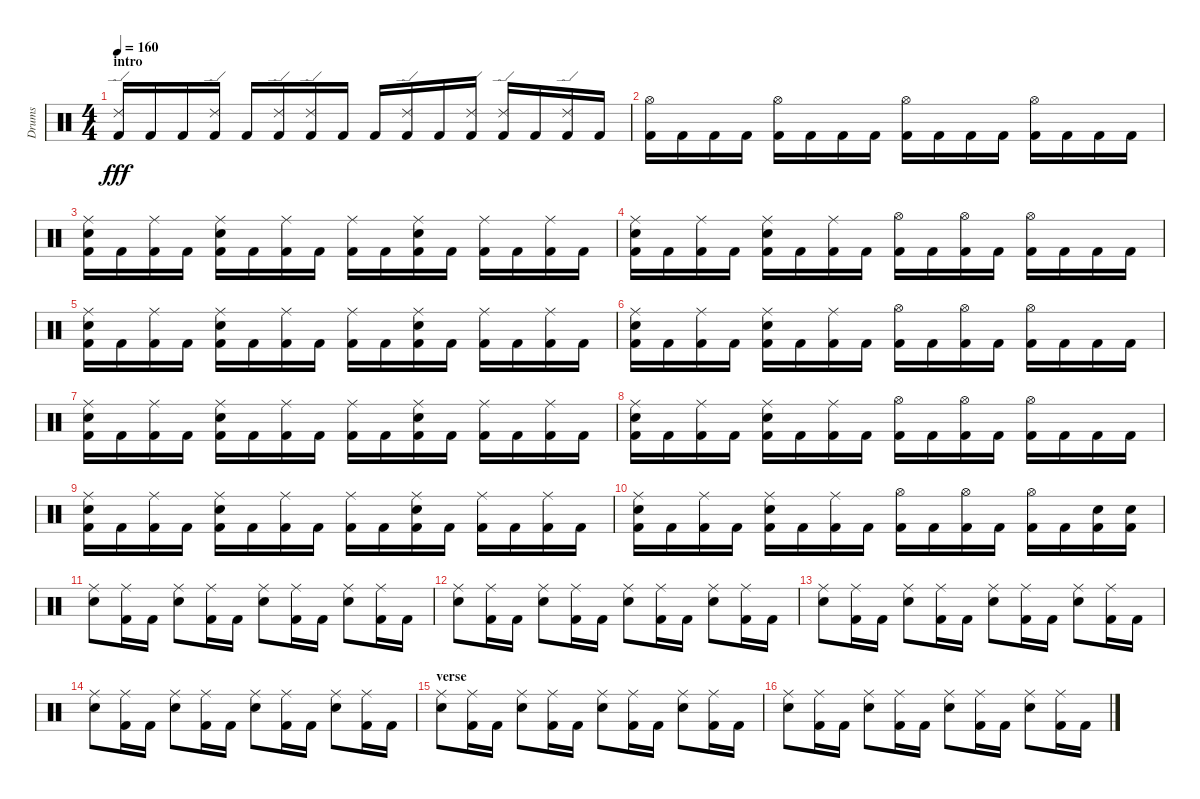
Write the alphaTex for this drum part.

\track ("Drums" "Drums") {instrument percussion}
\staff {score}
\articulation defaults
\ts (4 4)
\section ("" "intro")
\tempo 160
\clef neutral
\ks c
("Ride (edge) 2" "Kick (hit) 2").16{dy fff} "Kick (hit) 2".16 "Kick (hit) 2".16 ("Ride (edge) 2" "Kick (hit) 2").16 "Kick (hit) 2".16 ("Ride (edge) 2" "Kick (hit) 2").16 ("Ride (edge) 2" "Kick (hit) 2").16 "Kick (hit) 2".16 "Kick (hit) 2".16 ("Ride (edge) 2" "Kick (hit) 2").16 "Kick (hit) 2".16 ("Ride (edge) 2" "Kick (hit) 2").16 ("Ride (edge) 2" "Kick (hit) 2").16 "Kick (hit) 2".16 ("Ride (edge) 2" "Kick (hit) 2").16 "Kick (hit) 2".16 |
("Hi-Hat (open)" "Kick (hit) 2").16 "Kick (hit) 2".16 "Kick (hit) 2".16 "Kick (hit) 2".16 ("Hi-Hat (open)" "Kick (hit) 2").16 "Kick (hit) 2".16 "Kick (hit) 2".16 "Kick (hit) 2".16 ("Hi-Hat (open)" "Kick (hit) 2").16 "Kick (hit) 2".16 "Kick (hit) 2".16 "Kick (hit) 2".16 ("Hi-Hat (open)" "Kick (hit) 2").16 "Kick (hit) 2".16 "Kick (hit) 2".16 "Kick (hit) 2".16 |
("Kick (hit) 2" "Electric Snare (hit)" "Ride (middle)").16 "Kick (hit) 2".16 ("Kick (hit) 2" "Ride (middle)").16 "Kick (hit) 2".16 ("Kick (hit) 2" "Electric Snare (hit)" "Ride (middle)").16 "Kick (hit) 2".16 ("Kick (hit) 2" "Ride (middle)").16 "Kick (hit) 2".16 ("Kick (hit) 2" "Ride (middle)").16 "Kick (hit) 2".16 ("Kick (hit) 2" "Electric Snare (hit)" "Ride (middle)").16 "Kick (hit) 2".16 ("Kick (hit) 2" "Ride (middle)").16 "Kick (hit) 2".16 ("Kick (hit) 2" "Ride (middle)").16 "Kick (hit) 2".16 |
("Kick (hit) 2" "Electric Snare (hit)" "Ride (middle)").16 "Kick (hit) 2".16 ("Kick (hit) 2" "Ride (middle)").16 "Kick (hit) 2".16 ("Kick (hit) 2" "Electric Snare (hit)" "Ride (middle)").16 "Kick (hit) 2".16 ("Kick (hit) 2" "Ride (middle)").16 "Kick (hit) 2".16 ("Kick (hit) 2" "Hi-Hat (open)").16 "Kick (hit) 2".16 ("Kick (hit) 2" "Hi-Hat (open)").16 "Kick (hit) 2".16 ("Kick (hit) 2" "Hi-Hat (open)").16 "Kick (hit) 2".16 "Kick (hit) 2".16 "Kick (hit) 2".16 |
("Kick (hit) 2" "Electric Snare (hit)" "Ride (middle)").16 "Kick (hit) 2".16 ("Kick (hit) 2" "Ride (middle)").16 "Kick (hit) 2".16 ("Kick (hit) 2" "Electric Snare (hit)" "Ride (middle)").16 "Kick (hit) 2".16 ("Kick (hit) 2" "Ride (middle)").16 "Kick (hit) 2".16 ("Kick (hit) 2" "Ride (middle)").16 "Kick (hit) 2".16 ("Kick (hit) 2" "Electric Snare (hit)" "Ride (middle)").16 "Kick (hit) 2".16 ("Kick (hit) 2" "Ride (middle)").16 "Kick (hit) 2".16 ("Kick (hit) 2" "Ride (middle)").16 "Kick (hit) 2".16 |
("Kick (hit) 2" "Electric Snare (hit)" "Ride (middle)").16 "Kick (hit) 2".16 ("Kick (hit) 2" "Ride (middle)").16 "Kick (hit) 2".16 ("Kick (hit) 2" "Electric Snare (hit)" "Ride (middle)").16 "Kick (hit) 2".16 ("Kick (hit) 2" "Ride (middle)").16 "Kick (hit) 2".16 ("Kick (hit) 2" "Hi-Hat (open)").16 "Kick (hit) 2".16 ("Kick (hit) 2" "Hi-Hat (open)").16 "Kick (hit) 2".16 ("Kick (hit) 2" "Hi-Hat (open)").16 "Kick (hit) 2".16 "Kick (hit) 2".16 "Kick (hit) 2".16 |
("Kick (hit) 2" "Electric Snare (hit)" "Ride (middle)").16 "Kick (hit) 2".16 ("Kick (hit) 2" "Ride (middle)").16 "Kick (hit) 2".16 ("Kick (hit) 2" "Electric Snare (hit)" "Ride (middle)").16 "Kick (hit) 2".16 ("Kick (hit) 2" "Ride (middle)").16 "Kick (hit) 2".16 ("Kick (hit) 2" "Ride (middle)").16 "Kick (hit) 2".16 ("Kick (hit) 2" "Electric Snare (hit)" "Ride (middle)").16 "Kick (hit) 2".16 ("Kick (hit) 2" "Ride (middle)").16 "Kick (hit) 2".16 ("Kick (hit) 2" "Ride (middle)").16 "Kick (hit) 2".16 |
("Kick (hit) 2" "Electric Snare (hit)" "Ride (middle)").16 "Kick (hit) 2".16 ("Kick (hit) 2" "Ride (middle)").16 "Kick (hit) 2".16 ("Kick (hit) 2" "Electric Snare (hit)" "Ride (middle)").16 "Kick (hit) 2".16 ("Kick (hit) 2" "Ride (middle)").16 "Kick (hit) 2".16 ("Kick (hit) 2" "Hi-Hat (open)").16 "Kick (hit) 2".16 ("Kick (hit) 2" "Hi-Hat (open)").16 "Kick (hit) 2".16 ("Kick (hit) 2" "Hi-Hat (open)").16 "Kick (hit) 2".16 "Kick (hit) 2".16 "Kick (hit) 2".16 |
("Kick (hit) 2" "Electric Snare (hit)" "Ride (middle)").16 "Kick (hit) 2".16 ("Kick (hit) 2" "Ride (middle)").16 "Kick (hit) 2".16 ("Kick (hit) 2" "Electric Snare (hit)" "Ride (middle)").16 "Kick (hit) 2".16 ("Kick (hit) 2" "Ride (middle)").16 "Kick (hit) 2".16 ("Kick (hit) 2" "Ride (middle)").16 "Kick (hit) 2".16 ("Kick (hit) 2" "Electric Snare (hit)" "Ride (middle)").16 "Kick (hit) 2".16 ("Kick (hit) 2" "Ride (middle)").16 "Kick (hit) 2".16 ("Kick (hit) 2" "Ride (middle)").16 "Kick (hit) 2".16 |
("Kick (hit) 2" "Electric Snare (hit)" "Ride (middle)").16 "Kick (hit) 2".16 ("Kick (hit) 2" "Ride (middle)").16 "Kick (hit) 2".16 ("Kick (hit) 2" "Electric Snare (hit)" "Ride (middle)").16 "Kick (hit) 2".16 ("Kick (hit) 2" "Ride (middle)").16 "Kick (hit) 2".16 ("Kick (hit) 2" "Hi-Hat (open)").16 "Kick (hit) 2".16 ("Kick (hit) 2" "Hi-Hat (open)").16 "Kick (hit) 2".16 ("Kick (hit) 2" "Hi-Hat (open)").16 "Kick (hit) 2".16 ("Kick (hit) 2" "Electric Snare (hit)").16 ("Kick (hit) 2" "Electric Snare (hit)").16 |
("Electric Snare (hit)" "Ride (middle)").8 ("Kick (hit) 2" "Ride (middle)").16 "Kick (hit) 2".16 ("Electric Snare (hit)" "Ride (middle)").8 ("Kick (hit) 2" "Ride (middle)").16 "Kick (hit) 2".16 ("Electric Snare (hit)" "Ride (middle)").8 ("Kick (hit) 2" "Ride (middle)").16 "Kick (hit) 2".16 ("Electric Snare (hit)" "Ride (middle)").8 ("Kick (hit) 2" "Ride (middle)").16 "Kick (hit) 2".16 |
("Electric Snare (hit)" "Ride (middle)").8 ("Kick (hit) 2" "Ride (middle)").16 "Kick (hit) 2".16 ("Electric Snare (hit)" "Ride (middle)").8 ("Kick (hit) 2" "Ride (middle)").16 "Kick (hit) 2".16 ("Electric Snare (hit)" "Ride (middle)").8 ("Kick (hit) 2" "Ride (middle)").16 "Kick (hit) 2".16 ("Electric Snare (hit)" "Ride (middle)").8 ("Kick (hit) 2" "Ride (middle)").16 "Kick (hit) 2".16 |
("Electric Snare (hit)" "Ride (middle)").8 ("Kick (hit) 2" "Ride (middle)").16 "Kick (hit) 2".16 ("Electric Snare (hit)" "Ride (middle)").8 ("Kick (hit) 2" "Ride (middle)").16 "Kick (hit) 2".16 ("Electric Snare (hit)" "Ride (middle)").8 ("Kick (hit) 2" "Ride (middle)").16 "Kick (hit) 2".16 ("Electric Snare (hit)" "Ride (middle)").8 ("Kick (hit) 2" "Ride (middle)").16 "Kick (hit) 2".16 |
("Electric Snare (hit)" "Ride (middle)").8 ("Kick (hit) 2" "Ride (middle)").16 "Kick (hit) 2".16 ("Electric Snare (hit)" "Ride (middle)").8 ("Kick (hit) 2" "Ride (middle)").16 "Kick (hit) 2".16 ("Electric Snare (hit)" "Ride (middle)").8 ("Kick (hit) 2" "Ride (middle)").16 "Kick (hit) 2".16 ("Electric Snare (hit)" "Ride (middle)").8 ("Kick (hit) 2" "Ride (middle)").16 "Kick (hit) 2".16 |
\section ("" "verse")
("Electric Snare (hit)" "Ride (middle)").8 ("Kick (hit) 2" "Ride (middle)").16 "Kick (hit) 2".16 ("Electric Snare (hit)" "Ride (middle)").8 ("Kick (hit) 2" "Ride (middle)").16 "Kick (hit) 2".16 ("Electric Snare (hit)" "Ride (middle)").8 ("Kick (hit) 2" "Ride (middle)").16 "Kick (hit) 2".16 ("Electric Snare (hit)" "Ride (middle)").8 ("Kick (hit) 2" "Ride (middle)").16 "Kick (hit) 2".16 |
("Electric Snare (hit)" "Ride (middle)").8 ("Kick (hit) 2" "Ride (middle)").16 "Kick (hit) 2".16 ("Electric Snare (hit)" "Ride (middle)").8 ("Kick (hit) 2" "Ride (middle)").16 "Kick (hit) 2".16 ("Electric Snare (hit)" "Ride (middle)").8 ("Kick (hit) 2" "Ride (middle)").16 "Kick (hit) 2".16 ("Electric Snare (hit)" "Ride (middle)").8 ("Kick (hit) 2" "Ride (middle)").16 "Kick (hit) 2".16
